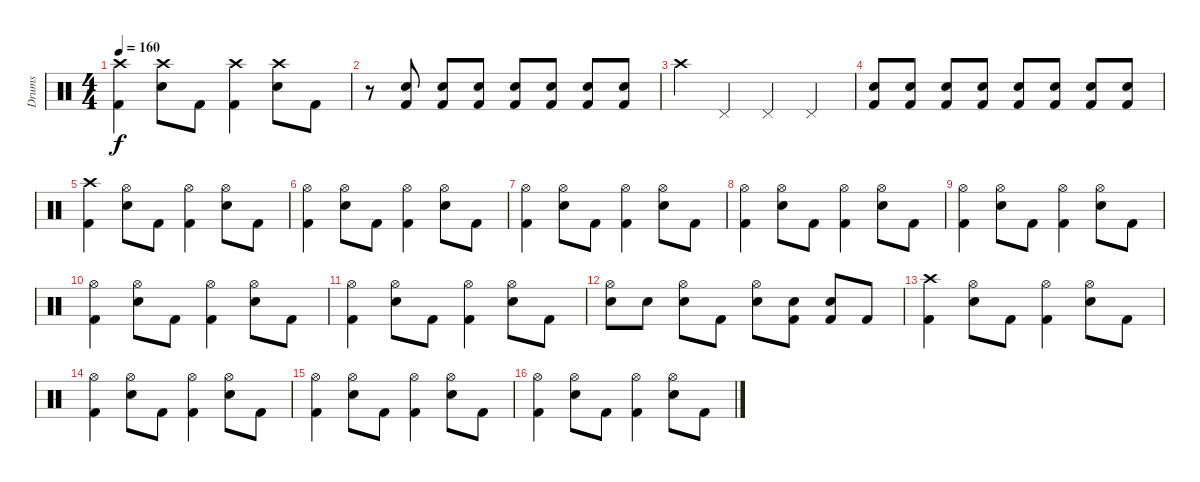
\track ("Drums" "Drums") {instrument percussion}
\staff {score}
\articulation defaults
\ts (4 4)
\tempo 160
\clef neutral
\ks c
("Crash high (hit)" "Kick (hit) 2").4{dy f} ("Crash high (hit)" "Electric Snare (hit)").8 "Kick (hit) 2".8 ("Crash high (hit)" "Kick (hit) 2").4 ("Crash high (hit)" "Electric Snare (hit)").8 "Kick (hit) 2".8 |
r.8 ("Electric Snare (hit)" "Kick (hit) 2").8 ("Electric Snare (hit)" "Kick (hit) 2").8 ("Electric Snare (hit)" "Kick (hit) 2").8 ("Electric Snare (hit)" "Kick (hit) 2").8 ("Electric Snare (hit)" "Kick (hit) 2").8 ("Electric Snare (hit)" "Kick (hit) 2").8 ("Electric Snare (hit)" "Kick (hit) 2").8 |
"Crash high (hit)".4 "Pedal Hi-Hat (hit)".4 "Pedal Hi-Hat (hit)".4 "Pedal Hi-Hat (hit)".4 |
("Electric Snare (hit)" "Kick (hit) 2").8 ("Electric Snare (hit)" "Kick (hit) 2").8 ("Electric Snare (hit)" "Kick (hit) 2").8 ("Electric Snare (hit)" "Kick (hit) 2").8 ("Electric Snare (hit)" "Kick (hit) 2").8 ("Electric Snare (hit)" "Kick (hit) 2").8 ("Electric Snare (hit)" "Kick (hit) 2").8 ("Electric Snare (hit)" "Kick (hit) 2").8 |
("Crash high (hit)" "Kick (hit) 2").4 ("Hi-Hat (open)" "Electric Snare (hit)").8 "Kick (hit) 2".8 ("Hi-Hat (open)" "Kick (hit) 2").4 ("Hi-Hat (open)" "Electric Snare (hit)").8 "Kick (hit) 2".8 |
("Hi-Hat (open)" "Kick (hit) 2").4 ("Hi-Hat (open)" "Electric Snare (hit)").8 "Kick (hit) 2".8 ("Hi-Hat (open)" "Kick (hit) 2").4 ("Hi-Hat (open)" "Electric Snare (hit)").8 "Kick (hit) 2".8 |
("Hi-Hat (open)" "Kick (hit) 2").4 ("Hi-Hat (open)" "Electric Snare (hit)").8 "Kick (hit) 2".8 ("Hi-Hat (open)" "Kick (hit) 2").4 ("Hi-Hat (open)" "Electric Snare (hit)").8 "Kick (hit) 2".8 |
("Hi-Hat (open)" "Kick (hit) 2").4 ("Hi-Hat (open)" "Electric Snare (hit)").8 "Kick (hit) 2".8 ("Hi-Hat (open)" "Kick (hit) 2").4 ("Hi-Hat (open)" "Electric Snare (hit)").8 "Kick (hit) 2".8 |
("Hi-Hat (open)" "Kick (hit) 2").4 ("Hi-Hat (open)" "Electric Snare (hit)").8 "Kick (hit) 2".8 ("Hi-Hat (open)" "Kick (hit) 2").4 ("Hi-Hat (open)" "Electric Snare (hit)").8 "Kick (hit) 2".8 |
("Hi-Hat (open)" "Kick (hit) 2").4 ("Hi-Hat (open)" "Electric Snare (hit)").8 "Kick (hit) 2".8 ("Hi-Hat (open)" "Kick (hit) 2").4 ("Hi-Hat (open)" "Electric Snare (hit)").8 "Kick (hit) 2".8 |
("Hi-Hat (open)" "Kick (hit) 2").4 ("Hi-Hat (open)" "Electric Snare (hit)").8 "Kick (hit) 2".8 ("Hi-Hat (open)" "Kick (hit) 2").4 ("Hi-Hat (open)" "Electric Snare (hit)").8 "Kick (hit) 2".8 |
("Hi-Hat (open)" "Electric Snare (hit)").8 "Electric Snare (hit)".8 ("Hi-Hat (open)" "Electric Snare (hit)").8 "Kick (hit) 2".8 ("Hi-Hat (open)" "Electric Snare (hit)").8 ("Electric Snare (hit)" "Kick (hit) 2").8 ("Electric Snare (hit)" "Kick (hit) 2").8 "Kick (hit) 2".8 |
("Crash high (hit)" "Kick (hit) 2").4 ("Hi-Hat (open)" "Electric Snare (hit)").8 "Kick (hit) 2".8 ("Hi-Hat (open)" "Kick (hit) 2").4 ("Hi-Hat (open)" "Electric Snare (hit)").8 "Kick (hit) 2".8 |
("Hi-Hat (open)" "Kick (hit) 2").4 ("Hi-Hat (open)" "Electric Snare (hit)").8 "Kick (hit) 2".8 ("Hi-Hat (open)" "Kick (hit) 2").4 ("Hi-Hat (open)" "Electric Snare (hit)").8 "Kick (hit) 2".8 |
("Hi-Hat (open)" "Kick (hit) 2").4 ("Hi-Hat (open)" "Electric Snare (hit)").8 "Kick (hit) 2".8 ("Hi-Hat (open)" "Kick (hit) 2").4 ("Hi-Hat (open)" "Electric Snare (hit)").8 "Kick (hit) 2".8 |
("Hi-Hat (open)" "Kick (hit) 2").4 ("Hi-Hat (open)" "Electric Snare (hit)").8 "Kick (hit) 2".8 ("Hi-Hat (open)" "Kick (hit) 2").4 ("Hi-Hat (open)" "Electric Snare (hit)").8 "Kick (hit) 2".8
